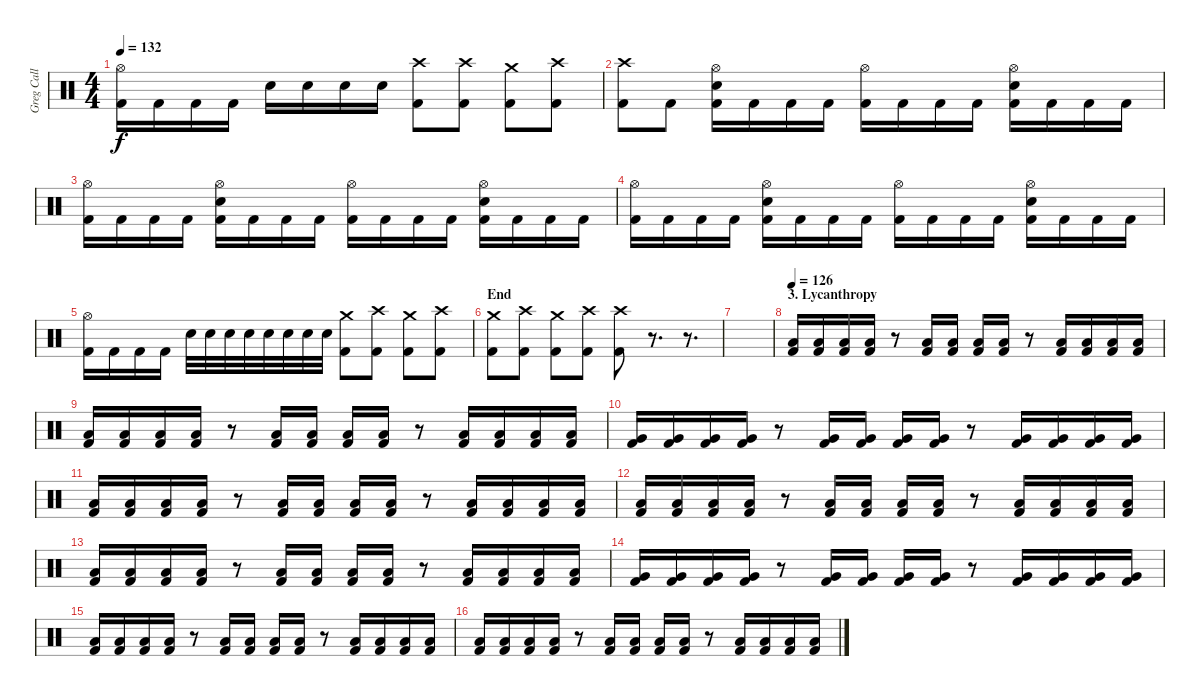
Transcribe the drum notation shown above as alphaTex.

\track ("Greg Call (Drums)" "Greg Call ") {instrument percussion}
\staff {score}
\articulation defaults
\ts (4 4)
\tempo 132
\clef neutral
\ks c
("Hi-Hat (open)" "Kick (hit) 2").16{dy f} "Kick (hit) 2".16 "Kick (hit) 2".16 "Kick (hit) 2".16 "Snare (hit) 2".16 "Snare (hit) 2".16 "Snare (hit) 2".16 "Snare (hit) 2".16 ("Crash high (hit)" "Kick (hit) 2").8 ("Crash high (hit)" "Kick (hit) 2").8 ("Crash medium (hit)" "Kick (hit) 2").8 ("Crash high (hit)" "Kick (hit) 2").8 |
("Crash high (hit)" "Kick (hit) 2").8 "Kick (hit) 2".8 ("Hi-Hat (open)" "Snare (hit) 2" "Kick (hit) 2").16 "Kick (hit) 2".16 "Kick (hit) 2".16 "Kick (hit) 2".16 ("Hi-Hat (open)" "Kick (hit) 2").16 "Kick (hit) 2".16 "Kick (hit) 2".16 "Kick (hit) 2".16 ("Hi-Hat (open)" "Snare (hit) 2" "Kick (hit) 2").16 "Kick (hit) 2".16 "Kick (hit) 2".16 "Kick (hit) 2".16 |
("Hi-Hat (open)" "Kick (hit) 2").16 "Kick (hit) 2".16 "Kick (hit) 2".16 "Kick (hit) 2".16 ("Hi-Hat (open)" "Snare (hit) 2" "Kick (hit) 2").16 "Kick (hit) 2".16 "Kick (hit) 2".16 "Kick (hit) 2".16 ("Hi-Hat (open)" "Kick (hit) 2").16 "Kick (hit) 2".16 "Kick (hit) 2".16 "Kick (hit) 2".16 ("Hi-Hat (open)" "Snare (hit) 2" "Kick (hit) 2").16 "Kick (hit) 2".16 "Kick (hit) 2".16 "Kick (hit) 2".16 |
("Hi-Hat (open)" "Kick (hit) 2").16 "Kick (hit) 2".16 "Kick (hit) 2".16 "Kick (hit) 2".16 ("Hi-Hat (open)" "Snare (hit) 2" "Kick (hit) 2").16 "Kick (hit) 2".16 "Kick (hit) 2".16 "Kick (hit) 2".16 ("Hi-Hat (open)" "Kick (hit) 2").16 "Kick (hit) 2".16 "Kick (hit) 2".16 "Kick (hit) 2".16 ("Hi-Hat (open)" "Snare (hit) 2" "Kick (hit) 2").16 "Kick (hit) 2".16 "Kick (hit) 2".16 "Kick (hit) 2".16 |
("Hi-Hat (open)" "Kick (hit) 2").16 "Kick (hit) 2".16 "Kick (hit) 2".16 "Kick (hit) 2".16 "Snare (hit) 2".32 "Snare (hit) 2".32 "Snare (hit) 2".32 "Snare (hit) 2".32 "Snare (hit) 2".32 "Snare (hit) 2".32 "Snare (hit) 2".32 "Snare (hit) 2".32 ("Crash medium (hit)" "Kick (hit) 2").8 ("Crash high (hit)" "Kick (hit) 2").8 ("Crash medium (hit)" "Kick (hit) 2").8 ("Crash high (hit)" "Kick (hit) 2").8 |
\section ("" "End")
("Crash medium (hit)" "Kick (hit) 2").8 ("Crash high (hit)" "Kick (hit) 2").8 ("Crash medium (hit)" "Kick (hit) 2").8 ("Crash high (hit)" "Kick (hit) 2").8 ("Crash high (hit)" "Kick (hit) 2").8 r.8{d volume 0} r.8{d} |
|
\section ("" "3. Lycanthropy")
\tempo 126
("Low Floor Tom (hit)" "Kick (hit) 2").16{volume 14} ("Low Floor Tom (hit)" "Kick (hit) 2").16 ("Low Floor Tom (hit)" "Kick (hit) 2").16 ("Low Floor Tom (hit)" "Kick (hit) 2").16 r.8 ("Low Floor Tom (hit)" "Kick (hit) 2").16 ("Low Floor Tom (hit)" "Kick (hit) 2").16 ("Low Floor Tom (hit)" "Kick (hit) 2").16 ("Low Floor Tom (hit)" "Kick (hit) 2").16 r.8 ("Low Floor Tom (hit)" "Kick (hit) 2").16 ("Low Floor Tom (hit)" "Kick (hit) 2").16 ("Low Floor Tom (hit)" "Kick (hit) 2").16 ("Low Floor Tom (hit)" "Kick (hit) 2").16 |
("Low Floor Tom (hit)" "Kick (hit) 2").16 ("Low Floor Tom (hit)" "Kick (hit) 2").16 ("Low Floor Tom (hit)" "Kick (hit) 2").16 ("Low Floor Tom (hit)" "Kick (hit) 2").16 r.8 ("Low Floor Tom (hit)" "Kick (hit) 2").16 ("Low Floor Tom (hit)" "Kick (hit) 2").16 ("Low Floor Tom (hit)" "Kick (hit) 2").16 ("Low Floor Tom (hit)" "Kick (hit) 2").16 r.8 ("Low Floor Tom (hit)" "Kick (hit) 2").16 ("Low Floor Tom (hit)" "Kick (hit) 2").16 ("Low Floor Tom (hit)" "Kick (hit) 2").16 ("Low Floor Tom (hit)" "Kick (hit) 2").16 |
("Very Low Tom (hit)" "Kick (hit) 2").16 ("Very Low Tom (hit)" "Kick (hit) 2").16 ("Very Low Tom (hit)" "Kick (hit) 2").16 ("Very Low Tom (hit)" "Kick (hit) 2").16 r.8 ("Very Low Tom (hit)" "Kick (hit) 2").16 ("Very Low Tom (hit)" "Kick (hit) 2").16 ("Very Low Tom (hit)" "Kick (hit) 2").16 ("Very Low Tom (hit)" "Kick (hit) 2").16 r.8 ("Very Low Tom (hit)" "Kick (hit) 2").16 ("Very Low Tom (hit)" "Kick (hit) 2").16 ("Very Low Tom (hit)" "Kick (hit) 2").16 ("Very Low Tom (hit)" "Kick (hit) 2").16 |
("Low Tom (hit)" "Kick (hit) 2").16 ("Low Tom (hit)" "Kick (hit) 2").16 ("Low Tom (hit)" "Kick (hit) 2").16 ("Low Tom (hit)" "Kick (hit) 2").16 r.8 ("Low Tom (hit)" "Kick (hit) 2").16 ("Low Tom (hit)" "Kick (hit) 2").16 ("Low Tom (hit)" "Kick (hit) 2").16 ("Low Tom (hit)" "Kick (hit) 2").16 r.8 ("Low Tom (hit)" "Kick (hit) 2").16 ("Low Tom (hit)" "Kick (hit) 2").16 ("Low Tom (hit)" "Kick (hit) 2").16 ("Low Tom (hit)" "Kick (hit) 2").16 |
("Low Floor Tom (hit)" "Kick (hit) 2").16{volume 14} ("Low Floor Tom (hit)" "Kick (hit) 2").16 ("Low Floor Tom (hit)" "Kick (hit) 2").16 ("Low Floor Tom (hit)" "Kick (hit) 2").16 r.8 ("Low Floor Tom (hit)" "Kick (hit) 2").16 ("Low Floor Tom (hit)" "Kick (hit) 2").16 ("Low Floor Tom (hit)" "Kick (hit) 2").16 ("Low Floor Tom (hit)" "Kick (hit) 2").16 r.8 ("Low Floor Tom (hit)" "Kick (hit) 2").16 ("Low Floor Tom (hit)" "Kick (hit) 2").16 ("Low Floor Tom (hit)" "Kick (hit) 2").16 ("Low Floor Tom (hit)" "Kick (hit) 2").16 |
("Low Floor Tom (hit)" "Kick (hit) 2").16 ("Low Floor Tom (hit)" "Kick (hit) 2").16 ("Low Floor Tom (hit)" "Kick (hit) 2").16 ("Low Floor Tom (hit)" "Kick (hit) 2").16 r.8 ("Low Floor Tom (hit)" "Kick (hit) 2").16 ("Low Floor Tom (hit)" "Kick (hit) 2").16 ("Low Floor Tom (hit)" "Kick (hit) 2").16 ("Low Floor Tom (hit)" "Kick (hit) 2").16 r.8 ("Low Floor Tom (hit)" "Kick (hit) 2").16 ("Low Floor Tom (hit)" "Kick (hit) 2").16 ("Low Floor Tom (hit)" "Kick (hit) 2").16 ("Low Floor Tom (hit)" "Kick (hit) 2").16 |
("Very Low Tom (hit)" "Kick (hit) 2").16 ("Very Low Tom (hit)" "Kick (hit) 2").16 ("Very Low Tom (hit)" "Kick (hit) 2").16 ("Very Low Tom (hit)" "Kick (hit) 2").16 r.8 ("Very Low Tom (hit)" "Kick (hit) 2").16 ("Very Low Tom (hit)" "Kick (hit) 2").16 ("Very Low Tom (hit)" "Kick (hit) 2").16 ("Very Low Tom (hit)" "Kick (hit) 2").16 r.8 ("Very Low Tom (hit)" "Kick (hit) 2").16 ("Very Low Tom (hit)" "Kick (hit) 2").16 ("Very Low Tom (hit)" "Kick (hit) 2").16 ("Very Low Tom (hit)" "Kick (hit) 2").16 |
("Low Tom (hit)" "Kick (hit) 2").16 ("Low Tom (hit)" "Kick (hit) 2").16 ("Low Tom (hit)" "Kick (hit) 2").16 ("Low Tom (hit)" "Kick (hit) 2").16 r.8 ("Low Tom (hit)" "Kick (hit) 2").16 ("Low Tom (hit)" "Kick (hit) 2").16 ("Low Tom (hit)" "Kick (hit) 2").16 ("Low Tom (hit)" "Kick (hit) 2").16 r.8 ("Low Tom (hit)" "Kick (hit) 2").16 ("Low Tom (hit)" "Kick (hit) 2").16 ("Low Tom (hit)" "Kick (hit) 2").16 ("Low Tom (hit)" "Kick (hit) 2").16 |
("Low Floor Tom (hit)" "Kick (hit) 2").16{volume 14} ("Low Floor Tom (hit)" "Kick (hit) 2").16 ("Low Floor Tom (hit)" "Kick (hit) 2").16 ("Low Floor Tom (hit)" "Kick (hit) 2").16 r.8 ("Low Floor Tom (hit)" "Kick (hit) 2").16 ("Low Floor Tom (hit)" "Kick (hit) 2").16 ("Low Floor Tom (hit)" "Kick (hit) 2").16 ("Low Floor Tom (hit)" "Kick (hit) 2").16 r.8 ("Low Floor Tom (hit)" "Kick (hit) 2").16 ("Low Floor Tom (hit)" "Kick (hit) 2").16 ("Low Floor Tom (hit)" "Kick (hit) 2").16 ("Low Floor Tom (hit)" "Kick (hit) 2").16
